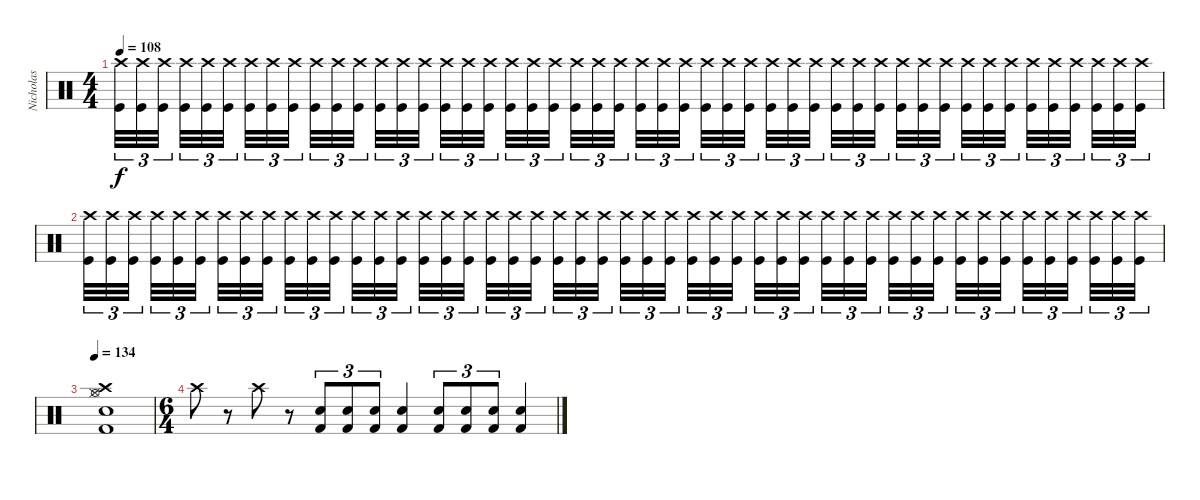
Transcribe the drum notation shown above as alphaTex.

\track ("Nicholas" "Nicholas") {instrument percussion}
\staff {score}
\articulation defaults
\ts (4 4)
\tempo 108
\clef neutral
\ks c
("Kick (hit)" "Crash high (hit)").32{tu (3 2) dy f} ("Kick (hit)" "Crash high (hit)").32{tu (3 2)} ("Kick (hit)" "Crash high (hit)").32{tu (3 2)} ("Kick (hit)" "Crash high (hit)").32{tu (3 2)} ("Kick (hit)" "Crash high (hit)").32{tu (3 2)} ("Kick (hit)" "Crash high (hit)").32{tu (3 2)} ("Kick (hit)" "Crash high (hit)").32{tu (3 2)} ("Kick (hit)" "Crash high (hit)").32{tu (3 2)} ("Kick (hit)" "Crash high (hit)").32{tu (3 2)} ("Kick (hit)" "Crash high (hit)").32{tu (3 2)} ("Kick (hit)" "Crash high (hit)").32{tu (3 2)} ("Kick (hit)" "Crash high (hit)").32{tu (3 2)} ("Kick (hit)" "Crash high (hit)").32{tu (3 2)} ("Kick (hit)" "Crash high (hit)").32{tu (3 2)} ("Kick (hit)" "Crash high (hit)").32{tu (3 2)} ("Kick (hit)" "Crash high (hit)").32{tu (3 2)} ("Kick (hit)" "Crash high (hit)").32{tu (3 2)} ("Kick (hit)" "Crash high (hit)").32{tu (3 2)} ("Kick (hit)" "Crash high (hit)").32{tu (3 2)} ("Kick (hit)" "Crash high (hit)").32{tu (3 2)} ("Kick (hit)" "Crash high (hit)").32{tu (3 2)} ("Kick (hit)" "Crash high (hit)").32{tu (3 2)} ("Kick (hit)" "Crash high (hit)").32{tu (3 2)} ("Kick (hit)" "Crash high (hit)").32{tu (3 2)} ("Kick (hit)" "Crash high (hit)").32{tu (3 2)} ("Kick (hit)" "Crash high (hit)").32{tu (3 2)} ("Kick (hit)" "Crash high (hit)").32{tu (3 2)} ("Kick (hit)" "Crash high (hit)").32{tu (3 2)} ("Kick (hit)" "Crash high (hit)").32{tu (3 2)} ("Kick (hit)" "Crash high (hit)").32{tu (3 2)} ("Kick (hit)" "Crash high (hit)").32{tu (3 2)} ("Kick (hit)" "Crash high (hit)").32{tu (3 2)} ("Kick (hit)" "Crash high (hit)").32{tu (3 2)} ("Kick (hit)" "Crash high (hit)").32{tu (3 2)} ("Kick (hit)" "Crash high (hit)").32{tu (3 2)} ("Kick (hit)" "Crash high (hit)").32{tu (3 2)} ("Kick (hit)" "Crash high (hit)").32{tu (3 2)} ("Kick (hit)" "Crash high (hit)").32{tu (3 2)} ("Kick (hit)" "Crash high (hit)").32{tu (3 2)} ("Kick (hit)" "Crash high (hit)").32{tu (3 2)} ("Kick (hit)" "Crash high (hit)").32{tu (3 2)} ("Kick (hit)" "Crash high (hit)").32{tu (3 2)} ("Kick (hit)" "Crash high (hit)").32{tu (3 2)} ("Kick (hit)" "Crash high (hit)").32{tu (3 2)} ("Kick (hit)" "Crash high (hit)").32{tu (3 2)} ("Kick (hit)" "Crash high (hit)").32{tu (3 2)} ("Kick (hit)" "Crash high (hit)").32{tu (3 2)} ("Kick (hit)" "Crash high (hit)").32{tu (3 2)} |
("Kick (hit)" "Crash high (hit)").32{tu (3 2)} ("Kick (hit)" "Crash high (hit)").32{tu (3 2)} ("Kick (hit)" "Crash high (hit)").32{tu (3 2)} ("Kick (hit)" "Crash high (hit)").32{tu (3 2)} ("Kick (hit)" "Crash high (hit)").32{tu (3 2)} ("Kick (hit)" "Crash high (hit)").32{tu (3 2)} ("Kick (hit)" "Crash high (hit)").32{tu (3 2)} ("Kick (hit)" "Crash high (hit)").32{tu (3 2)} ("Kick (hit)" "Crash high (hit)").32{tu (3 2)} ("Kick (hit)" "Crash high (hit)").32{tu (3 2)} ("Kick (hit)" "Crash high (hit)").32{tu (3 2)} ("Kick (hit)" "Crash high (hit)").32{tu (3 2)} ("Kick (hit)" "Crash high (hit)").32{tu (3 2)} ("Kick (hit)" "Crash high (hit)").32{tu (3 2)} ("Kick (hit)" "Crash high (hit)").32{tu (3 2)} ("Kick (hit)" "Crash high (hit)").32{tu (3 2)} ("Kick (hit)" "Crash high (hit)").32{tu (3 2)} ("Kick (hit)" "Crash high (hit)").32{tu (3 2)} ("Kick (hit)" "Crash high (hit)").32{tu (3 2)} ("Kick (hit)" "Crash high (hit)").32{tu (3 2)} ("Kick (hit)" "Crash high (hit)").32{tu (3 2)} ("Kick (hit)" "Crash high (hit)").32{tu (3 2)} ("Kick (hit)" "Crash high (hit)").32{tu (3 2)} ("Kick (hit)" "Crash high (hit)").32{tu (3 2)} ("Kick (hit)" "Crash high (hit)").32{tu (3 2)} ("Kick (hit)" "Crash high (hit)").32{tu (3 2)} ("Kick (hit)" "Crash high (hit)").32{tu (3 2)} ("Kick (hit)" "Crash high (hit)").32{tu (3 2)} ("Kick (hit)" "Crash high (hit)").32{tu (3 2)} ("Kick (hit)" "Crash high (hit)").32{tu (3 2)} ("Kick (hit)" "Crash high (hit)").32{tu (3 2)} ("Kick (hit)" "Crash high (hit)").32{tu (3 2)} ("Kick (hit)" "Crash high (hit)").32{tu (3 2)} ("Kick (hit)" "Crash high (hit)").32{tu (3 2)} ("Kick (hit)" "Crash high (hit)").32{tu (3 2)} ("Kick (hit)" "Crash high (hit)").32{tu (3 2)} ("Kick (hit)" "Crash high (hit)").32{tu (3 2)} ("Kick (hit)" "Crash high (hit)").32{tu (3 2)} ("Kick (hit)" "Crash high (hit)").32{tu (3 2)} ("Kick (hit)" "Crash high (hit)").32{tu (3 2)} ("Kick (hit)" "Crash high (hit)").32{tu (3 2)} ("Kick (hit)" "Crash high (hit)").32{tu (3 2)} ("Kick (hit)" "Crash high (hit)").32{tu (3 2)} ("Kick (hit)" "Crash high (hit)").32{tu (3 2)} ("Kick (hit)" "Crash high (hit)").32{tu (3 2)} ("Kick (hit)" "Crash high (hit)").32{tu (3 2)} ("Kick (hit)" "Crash high (hit)").32{tu (3 2)} ("Kick (hit)" "Crash high (hit)").32{tu (3 2)} |
\tempo 134
("Kick (hit) 2" "Snare (hit) 2" "Hi-Hat (closed)" "Hi-Hat (open)" "Crash high (hit)").1 |
\ts (6 4)
"Crash high (hit)".8 r.8 "Crash high (hit)".8 r.8 ("Snare (hit) 2" "Kick (hit) 2").8{tu (3 2)} ("Snare (hit) 2" "Kick (hit) 2").8{tu (3 2)} ("Snare (hit) 2" "Kick (hit) 2").8{tu (3 2)} ("Snare (hit) 2" "Kick (hit) 2").4 ("Snare (hit) 2" "Kick (hit) 2").8{tu (3 2)} ("Snare (hit) 2" "Kick (hit) 2").8{tu (3 2)} ("Snare (hit) 2" "Kick (hit) 2").8{tu (3 2)} ("Snare (hit) 2" "Kick (hit) 2").4
